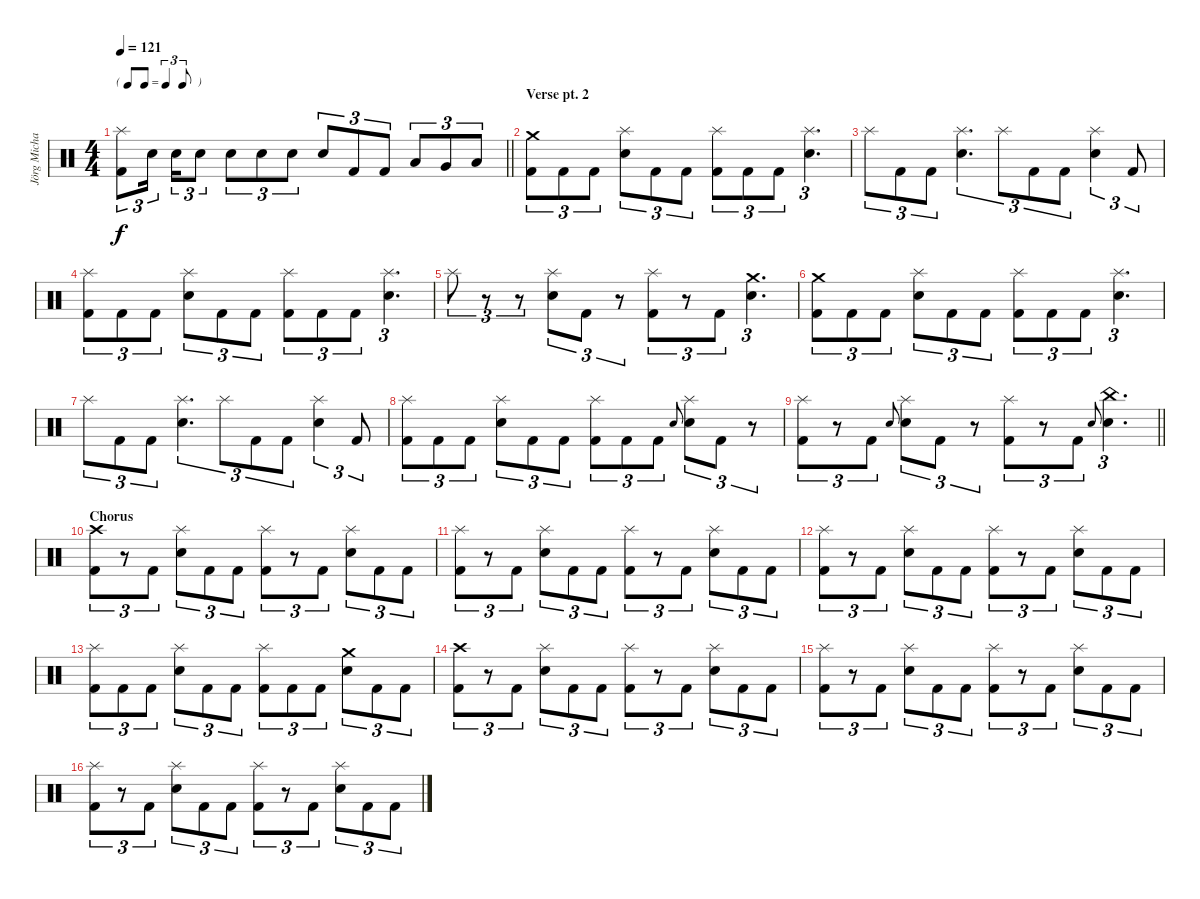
\track ("Jörg Michael" "Jörg Micha") {instrument percussion}
\staff {score}
\articulation defaults
\ts (4 4)
\tf triplet8th
\tempo 121
\clef neutral
\barLineRight lightlight
\ks c
("Splash (hit)" "Kick (hit) 2").8{tu (3 2) dy f} "Snare (hit) 2".16{tu (3 2) beam splitsecondary} "Snare (hit) 2".16{tu (3 2)} "Snare (hit) 2".8{tu (3 2)} "Snare (hit) 2".8{tu (3 2)} "Snare (hit) 2".8{tu (3 2)} "Snare (hit) 2".8{tu (3 2)} "Snare (hit) 2".8{tu (3 2)} "Kick (hit) 2".8{tu (3 2)} "Kick (hit) 2".8{tu (3 2)} "Low Tom (hit)".8{tu (3 2)} "Very Low Tom (hit)".8{tu (3 2)} "Low Floor Tom (hit)".8{tu (3 2)} |
\section ("" "Verse pt. 2")
("Crash medium (hit)" "Kick (hit) 2").8{tu (3 2)} "Kick (hit) 2".8{tu (3 2)} "Kick (hit) 2".8{tu (3 2)} ("Splash (hit)" "Snare (hit) 2").8{tu (3 2)} "Kick (hit) 2".8{tu (3 2)} "Kick (hit) 2".8{tu (3 2)} ("Splash (hit)" "Kick (hit) 2").8{tu (3 2)} "Kick (hit) 2".8{tu (3 2)} "Kick (hit) 2".8{tu (3 2)} ("Splash (hit)" "Snare (hit) 2").4{d tu (3 2)} |
"Splash (hit)".8{tu (3 2)} "Kick (hit) 2".8{tu (3 2)} "Kick (hit) 2".8{tu (3 2)} ("Splash (hit)" "Snare (hit) 2").4{d tu (3 2)} "Splash (hit)".8{tu (3 2)} "Kick (hit) 2".8{tu (3 2)} "Kick (hit) 2".8{tu (3 2)} ("Splash (hit)" "Snare (hit) 2").4{tu (3 2)} "Kick (hit) 2".8{tu (3 2)} |
("Splash (hit)" "Kick (hit) 2").8{tu (3 2)} "Kick (hit) 2".8{tu (3 2)} "Kick (hit) 2".8{tu (3 2)} ("Splash (hit)" "Snare (hit) 2").8{tu (3 2)} "Kick (hit) 2".8{tu (3 2)} "Kick (hit) 2".8{tu (3 2)} ("Splash (hit)" "Kick (hit) 2").8{tu (3 2)} "Kick (hit) 2".8{tu (3 2)} "Kick (hit) 2".8{tu (3 2)} ("Splash (hit)" "Snare (hit) 2").4{d tu (3 2)} |
"Splash (hit)".8{tu (3 2)} r.8{tu (3 2)} r.8{tu (3 2)} ("Splash (hit)" "Snare (hit) 2").8{tu (3 2)} "Kick (hit) 2".8{tu (3 2)} r.8{tu (3 2)} ("Splash (hit)" "Kick (hit) 2").8{tu (3 2)} r.8{tu (3 2)} "Kick (hit) 2".8{tu (3 2)} ("Crash medium (hit)" "Snare (hit) 2").4{d tu (3 2)} |
("Crash medium (hit)" "Kick (hit) 2").8{tu (3 2)} "Kick (hit) 2".8{tu (3 2)} "Kick (hit) 2".8{tu (3 2)} ("Splash (hit)" "Snare (hit) 2").8{tu (3 2)} "Kick (hit) 2".8{tu (3 2)} "Kick (hit) 2".8{tu (3 2)} ("Splash (hit)" "Kick (hit) 2").8{tu (3 2)} "Kick (hit) 2".8{tu (3 2)} "Kick (hit) 2".8{tu (3 2)} ("Splash (hit)" "Snare (hit) 2").4{d tu (3 2)} |
"Splash (hit)".8{tu (3 2)} "Kick (hit) 2".8{tu (3 2)} "Kick (hit) 2".8{tu (3 2)} ("Splash (hit)" "Snare (hit) 2").4{d tu (3 2)} "Splash (hit)".8{tu (3 2)} "Kick (hit) 2".8{tu (3 2)} "Kick (hit) 2".8{tu (3 2)} ("Splash (hit)" "Snare (hit) 2").4{tu (3 2)} "Kick (hit) 2".8{tu (3 2)} |
("Splash (hit)" "Kick (hit) 2").8{tu (3 2)} "Kick (hit) 2".8{tu (3 2)} "Kick (hit) 2".8{tu (3 2)} ("Splash (hit)" "Snare (hit) 2").8{tu (3 2)} "Kick (hit) 2".8{tu (3 2)} "Kick (hit) 2".8{tu (3 2)} ("Splash (hit)" "Kick (hit) 2").8{tu (3 2)} "Kick (hit) 2".8{tu (3 2)} "Kick (hit) 2".8{tu (3 2)} "Snare (hit) 2".8{gr onbeat} ("Splash (hit)" "Snare (hit) 2").8{tu (3 2)} "Kick (hit) 2".8{tu (3 2)} r.8{tu (3 2)} |
\barLineRight lightlight
("Splash (hit)" "Kick (hit) 2").8{tu (3 2)} r.8{tu (3 2)} "Kick (hit) 2".8{tu (3 2)} "Snare (hit) 2".8{gr onbeat} ("Splash (hit)" "Snare (hit) 2").8{tu (3 2)} "Kick (hit) 2".8{tu (3 2)} r.8{tu (3 2)} ("Splash (hit)" "Kick (hit) 2").8{tu (3 2)} r.8{tu (3 2)} "Kick (hit) 2".8{tu (3 2)} "Snare (hit) 2".8{gr onbeat} ("China (hit)" "Snare (hit) 2").4{d tu (3 2)} |
\section ("" "Chorus")
("Crash high (hit)" "Kick (hit) 2").8{tu (3 2)} r.8{tu (3 2)} "Kick (hit) 2".8{tu (3 2)} ("Splash (hit)" "Snare (hit) 2").8{tu (3 2)} "Kick (hit) 2".8{tu (3 2)} "Kick (hit) 2".8{tu (3 2)} ("Splash (hit)" "Kick (hit) 2").8{tu (3 2)} r.8{tu (3 2)} "Kick (hit) 2".8{tu (3 2)} ("Splash (hit)" "Snare (hit) 2").8{tu (3 2)} "Kick (hit) 2".8{tu (3 2)} "Kick (hit) 2".8{tu (3 2)} |
("Splash (hit)" "Kick (hit) 2").8{tu (3 2)} r.8{tu (3 2)} "Kick (hit) 2".8{tu (3 2)} ("Splash (hit)" "Snare (hit) 2").8{tu (3 2)} "Kick (hit) 2".8{tu (3 2)} "Kick (hit) 2".8{tu (3 2)} ("Splash (hit)" "Kick (hit) 2").8{tu (3 2)} r.8{tu (3 2)} "Kick (hit) 2".8{tu (3 2)} ("Splash (hit)" "Snare (hit) 2").8{tu (3 2)} "Kick (hit) 2".8{tu (3 2)} "Kick (hit) 2".8{tu (3 2)} |
("Splash (hit)" "Kick (hit) 2").8{tu (3 2)} r.8{tu (3 2)} "Kick (hit) 2".8{tu (3 2)} ("Splash (hit)" "Snare (hit) 2").8{tu (3 2)} "Kick (hit) 2".8{tu (3 2)} "Kick (hit) 2".8{tu (3 2)} ("Splash (hit)" "Kick (hit) 2").8{tu (3 2)} r.8{tu (3 2)} "Kick (hit) 2".8{tu (3 2)} ("Splash (hit)" "Snare (hit) 2").8{tu (3 2)} "Kick (hit) 2".8{tu (3 2)} "Kick (hit) 2".8{tu (3 2)} |
("Splash (hit)" "Kick (hit) 2").8{tu (3 2)} "Kick (hit) 2".8{tu (3 2)} "Kick (hit) 2".8{tu (3 2)} ("Splash (hit)" "Snare (hit) 2").8{tu (3 2)} "Kick (hit) 2".8{tu (3 2)} "Kick (hit) 2".8{tu (3 2)} ("Splash (hit)" "Kick (hit) 2").8{tu (3 2)} "Kick (hit) 2".8{tu (3 2)} "Kick (hit) 2".8{tu (3 2)} ("Crash medium (hit)" "Snare (hit) 2").8{tu (3 2)} "Kick (hit) 2".8{tu (3 2)} "Kick (hit) 2".8{tu (3 2)} |
("Crash high (hit)" "Kick (hit) 2").8{tu (3 2)} r.8{tu (3 2)} "Kick (hit) 2".8{tu (3 2)} ("Splash (hit)" "Snare (hit) 2").8{tu (3 2)} "Kick (hit) 2".8{tu (3 2)} "Kick (hit) 2".8{tu (3 2)} ("Splash (hit)" "Kick (hit) 2").8{tu (3 2)} r.8{tu (3 2)} "Kick (hit) 2".8{tu (3 2)} ("Splash (hit)" "Snare (hit) 2").8{tu (3 2)} "Kick (hit) 2".8{tu (3 2)} "Kick (hit) 2".8{tu (3 2)} |
("Splash (hit)" "Kick (hit) 2").8{tu (3 2)} r.8{tu (3 2)} "Kick (hit) 2".8{tu (3 2)} ("Splash (hit)" "Snare (hit) 2").8{tu (3 2)} "Kick (hit) 2".8{tu (3 2)} "Kick (hit) 2".8{tu (3 2)} ("Splash (hit)" "Kick (hit) 2").8{tu (3 2)} r.8{tu (3 2)} "Kick (hit) 2".8{tu (3 2)} ("Splash (hit)" "Snare (hit) 2").8{tu (3 2)} "Kick (hit) 2".8{tu (3 2)} "Kick (hit) 2".8{tu (3 2)} |
("Splash (hit)" "Kick (hit) 2").8{tu (3 2)} r.8{tu (3 2)} "Kick (hit) 2".8{tu (3 2)} ("Splash (hit)" "Snare (hit) 2").8{tu (3 2)} "Kick (hit) 2".8{tu (3 2)} "Kick (hit) 2".8{tu (3 2)} ("Splash (hit)" "Kick (hit) 2").8{tu (3 2)} r.8{tu (3 2)} "Kick (hit) 2".8{tu (3 2)} ("Splash (hit)" "Snare (hit) 2").8{tu (3 2)} "Kick (hit) 2".8{tu (3 2)} "Kick (hit) 2".8{tu (3 2)}
